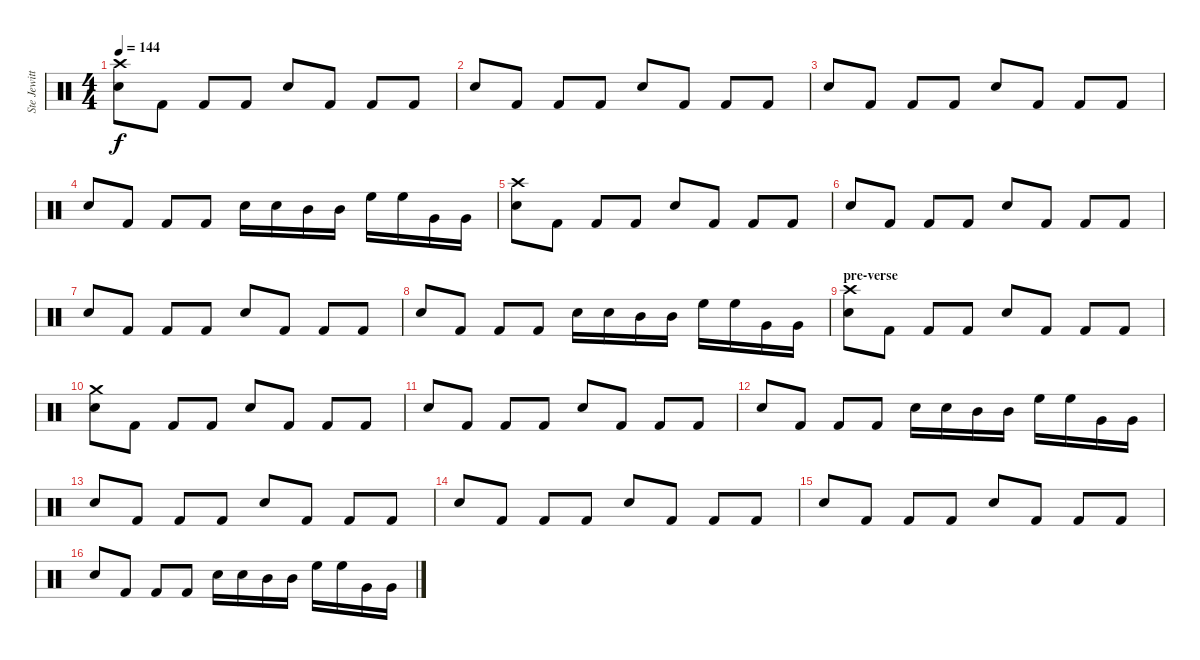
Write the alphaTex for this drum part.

\track ("Ste Jewitt (Drummer)" "Ste Jewitt") {instrument percussion}
\staff {score}
\articulation defaults
\ts (4 4)
\tempo 144
\clef neutral
\ks c
("Crash high (hit)" "Snare (hit) 2").8{dy f} "Kick (hit) 2".8 "Kick (hit) 2".8 "Kick (hit) 2".8 "Snare (hit) 2".8 "Kick (hit) 2".8 "Kick (hit) 2".8 "Kick (hit) 2".8 |
"Snare (hit) 2".8 "Kick (hit) 2".8 "Kick (hit) 2".8 "Kick (hit) 2".8 "Snare (hit) 2".8 "Kick (hit) 2".8 "Kick (hit) 2".8 "Kick (hit) 2".8 |
"Snare (hit) 2".8 "Kick (hit) 2".8 "Kick (hit) 2".8 "Kick (hit) 2".8 "Snare (hit) 2".8 "Kick (hit) 2".8 "Kick (hit) 2".8 "Kick (hit) 2".8 |
"Snare (hit) 2".8 "Kick (hit) 2".8 "Kick (hit) 2".8 "Kick (hit) 2".8 "Snare (hit) 2".16 "Snare (hit) 2".16 "Mid Tom (hit)".16 "Mid Tom (hit)".16 "High Floor Tom (hit)".16 "High Floor Tom (hit)".16 "Very Low Tom (hit)".16 "Very Low Tom (hit)".16 |
("Crash high (hit)" "Snare (hit) 2").8 "Kick (hit) 2".8 "Kick (hit) 2".8 "Kick (hit) 2".8 "Snare (hit) 2".8 "Kick (hit) 2".8 "Kick (hit) 2".8 "Kick (hit) 2".8 |
"Snare (hit) 2".8 "Kick (hit) 2".8 "Kick (hit) 2".8 "Kick (hit) 2".8 "Snare (hit) 2".8 "Kick (hit) 2".8 "Kick (hit) 2".8 "Kick (hit) 2".8 |
"Snare (hit) 2".8 "Kick (hit) 2".8 "Kick (hit) 2".8 "Kick (hit) 2".8 "Snare (hit) 2".8 "Kick (hit) 2".8 "Kick (hit) 2".8 "Kick (hit) 2".8 |
"Snare (hit) 2".8 "Kick (hit) 2".8 "Kick (hit) 2".8 "Kick (hit) 2".8 "Snare (hit) 2".16 "Snare (hit) 2".16 "Mid Tom (hit)".16 "Mid Tom (hit)".16 "High Floor Tom (hit)".16 "High Floor Tom (hit)".16 "Very Low Tom (hit)".16 "Very Low Tom (hit)".16 |
\section ("" "pre-verse")
("Crash high (hit)" "Snare (hit) 2").8 "Kick (hit) 2".8 "Kick (hit) 2".8 "Kick (hit) 2".8 "Snare (hit) 2".8 "Kick (hit) 2".8 "Kick (hit) 2".8 "Kick (hit) 2".8 |
("Crash medium (hit)" "Snare (hit) 2").8 "Kick (hit) 2".8 "Kick (hit) 2".8 "Kick (hit) 2".8 "Snare (hit) 2".8 "Kick (hit) 2".8 "Kick (hit) 2".8 "Kick (hit) 2".8 |
"Snare (hit) 2".8 "Kick (hit) 2".8 "Kick (hit) 2".8 "Kick (hit) 2".8 "Snare (hit) 2".8 "Kick (hit) 2".8 "Kick (hit) 2".8 "Kick (hit) 2".8 |
"Snare (hit) 2".8 "Kick (hit) 2".8 "Kick (hit) 2".8 "Kick (hit) 2".8 "Snare (hit) 2".16 "Snare (hit) 2".16 "Mid Tom (hit)".16 "Mid Tom (hit)".16 "High Floor Tom (hit)".16 "High Floor Tom (hit)".16 "Very Low Tom (hit)".16 "Very Low Tom (hit)".16 |
"Snare (hit) 2".8 "Kick (hit) 2".8 "Kick (hit) 2".8 "Kick (hit) 2".8 "Snare (hit) 2".8 "Kick (hit) 2".8 "Kick (hit) 2".8 "Kick (hit) 2".8 |
"Snare (hit) 2".8 "Kick (hit) 2".8 "Kick (hit) 2".8 "Kick (hit) 2".8 "Snare (hit) 2".8 "Kick (hit) 2".8 "Kick (hit) 2".8 "Kick (hit) 2".8 |
"Snare (hit) 2".8 "Kick (hit) 2".8 "Kick (hit) 2".8 "Kick (hit) 2".8 "Snare (hit) 2".8 "Kick (hit) 2".8 "Kick (hit) 2".8 "Kick (hit) 2".8 |
"Snare (hit) 2".8 "Kick (hit) 2".8 "Kick (hit) 2".8 "Kick (hit) 2".8 "Snare (hit) 2".16 "Snare (hit) 2".16 "Mid Tom (hit)".16 "Mid Tom (hit)".16 "High Floor Tom (hit)".16 "High Floor Tom (hit)".16 "Very Low Tom (hit)".16 "Very Low Tom (hit)".16
